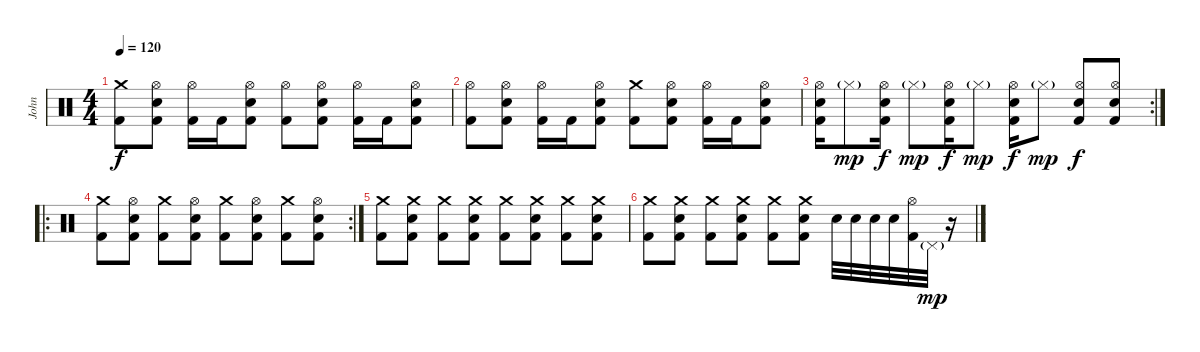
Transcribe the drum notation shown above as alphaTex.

\track ("John" "John") {instrument percussion}
\staff {score}
\articulation defaults
\ts (4 4)
\tempo 120
\clef neutral
\ks c
("Crash medium (hit)" "Kick (hit) 2").8{dy f} ("Hi-Hat (open)" "Kick (hit) 2" "Electric Snare (hit)").8 ("Hi-Hat (open)" "Kick (hit) 2").16 "Kick (hit) 2".16 ("Hi-Hat (open)" "Kick (hit) 2" "Electric Snare (hit)").8 ("Hi-Hat (open)" "Kick (hit) 2").8 ("Hi-Hat (open)" "Kick (hit) 2" "Electric Snare (hit)").8 ("Hi-Hat (open)" "Kick (hit) 2").16 "Kick (hit) 2".16 ("Hi-Hat (open)" "Kick (hit) 2" "Electric Snare (hit)").8 |
("Hi-Hat (open)" "Kick (hit) 2").8 ("Hi-Hat (open)" "Kick (hit) 2" "Electric Snare (hit)").8 ("Hi-Hat (open)" "Kick (hit) 2").16 "Kick (hit) 2".16 ("Hi-Hat (open)" "Kick (hit) 2" "Electric Snare (hit)").8 ("Crash medium (hit)" "Kick (hit) 2").8 ("Hi-Hat (open)" "Kick (hit) 2" "Electric Snare (hit)").8 ("Hi-Hat (open)" "Kick (hit) 2").16 "Kick (hit) 2".16 ("Hi-Hat (open)" "Kick (hit) 2" "Electric Snare (hit)").8 |
\rc 2
("Hi-Hat (open)" "Kick (hit) 2" "Electric Snare (hit)").16 "Hi-Hat (closed)"{g}.8{dy mp} ("Hi-Hat (open)" "Kick (hit) 2" "Electric Snare (hit)").16{dy f} "Hi-Hat (closed)"{g}.8{dy mp} ("Hi-Hat (open)" "Kick (hit) 2" "Electric Snare (hit)").16{dy f} "Hi-Hat (closed)"{g}.8{dy mp} ("Hi-Hat (open)" "Kick (hit) 2" "Electric Snare (hit)").16{dy f} "Hi-Hat (closed)"{g}.8{dy mp} ("Hi-Hat (open)" "Kick (hit) 2" "Electric Snare (hit)").8{dy f} ("Hi-Hat (open)" "Kick (hit) 2" "Electric Snare (hit)").8 |
\ro
\rc 2
("Crash medium (hit)" "Kick (hit) 2").8 ("Hi-Hat (open)" "Kick (hit) 2" "Electric Snare (hit)").8 ("Crash medium (hit)" "Kick (hit) 2").8 ("Hi-Hat (open)" "Kick (hit) 2" "Electric Snare (hit)").8 ("Crash medium (hit)" "Kick (hit) 2").8 ("Hi-Hat (open)" "Kick (hit) 2" "Electric Snare (hit)").8 ("Crash medium (hit)" "Kick (hit) 2").8 ("Hi-Hat (open)" "Kick (hit) 2" "Electric Snare (hit)").8 |
("Crash medium (hit)" "Kick (hit) 2").8 ("Crash medium (hit)" "Kick (hit) 2" "Electric Snare (hit)").8 ("Crash medium (hit)" "Kick (hit) 2").8 ("Crash medium (hit)" "Kick (hit) 2" "Electric Snare (hit)").8 ("Crash medium (hit)" "Kick (hit) 2").8 ("Crash medium (hit)" "Kick (hit) 2" "Electric Snare (hit)").8 ("Crash medium (hit)" "Kick (hit) 2").8 ("Crash medium (hit)" "Kick (hit) 2" "Electric Snare (hit)").8 |
("Crash medium (hit)" "Kick (hit) 2").8 ("Crash medium (hit)" "Kick (hit) 2" "Electric Snare (hit)").8 ("Crash medium (hit)" "Kick (hit) 2").8 ("Crash medium (hit)" "Kick (hit) 2" "Electric Snare (hit)").8 ("Crash medium (hit)" "Kick (hit) 2").8 ("Crash medium (hit)" "Kick (hit) 2" "Electric Snare (hit)").8 "Electric Snare (hit)".32 "Electric Snare (hit)".32 "Electric Snare (hit)".32 "Electric Snare (hit)".32 ("Hi-Hat (open)" "Kick (hit) 2").32 "Pedal Hi-Hat (hit)"{g}.32{dy mp} r.16
